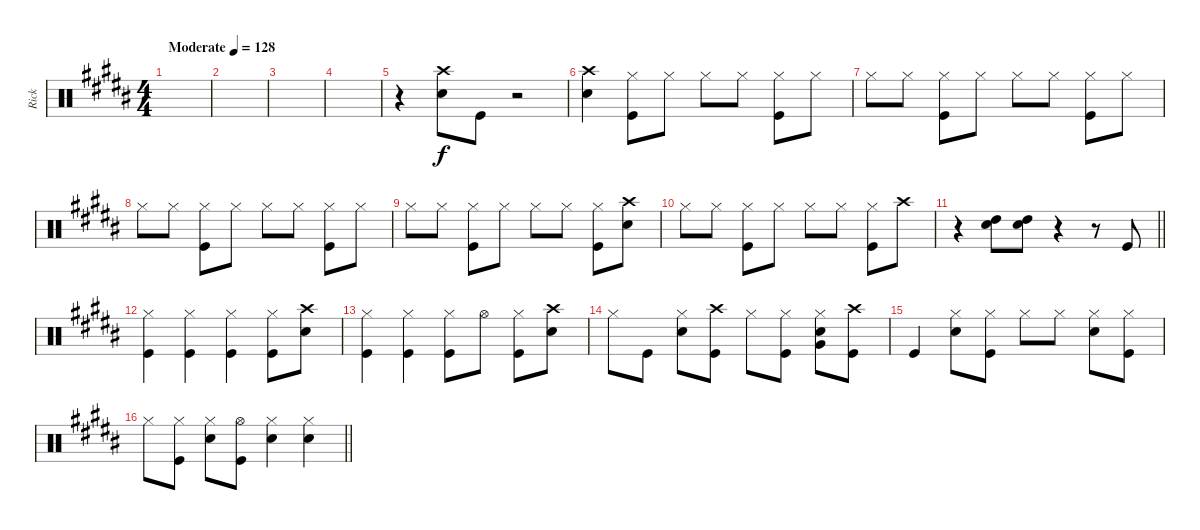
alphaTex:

\track ("Rick" "Rick") {instrument percussion}
\staff {score}
\articulation defaults
\ts (4 4)
\tempo (128 "Moderate")
\clef neutral
\ks b
|
|
|
|
r.4 ("Crash high (hit)" "Snare (hit) 2").8 "Kick (hit)".8 r.2 |
("Crash high (hit)" "Snare (hit) 2").4 ("Hi-Hat (closed)" "Kick (hit)").8 "Hi-Hat (closed)".8 "Hi-Hat (closed)".8 "Hi-Hat (closed)".8 ("Hi-Hat (closed)" "Kick (hit)").8 "Hi-Hat (closed)".8 |
"Hi-Hat (closed)".8 "Hi-Hat (closed)".8 ("Hi-Hat (closed)" "Kick (hit)").8 "Hi-Hat (closed)".8 "Hi-Hat (closed)".8 "Hi-Hat (closed)".8 ("Hi-Hat (closed)" "Kick (hit)").8 "Hi-Hat (closed)".8 |
"Hi-Hat (closed)".8 "Hi-Hat (closed)".8 ("Hi-Hat (closed)" "Kick (hit)").8 "Hi-Hat (closed)".8 "Hi-Hat (closed)".8 "Hi-Hat (closed)".8 ("Hi-Hat (closed)" "Kick (hit)").8 "Hi-Hat (closed)".8 |
"Hi-Hat (closed)".8 "Hi-Hat (closed)".8 ("Hi-Hat (closed)" "Kick (hit)").8 "Hi-Hat (closed)".8 "Hi-Hat (closed)".8 "Hi-Hat (closed)".8 ("Hi-Hat (closed)" "Kick (hit)").8 ("Crash high (hit)" "Snare (hit) 2").8 |
"Hi-Hat (closed)".8 "Hi-Hat (closed)".8 ("Hi-Hat (closed)" "Kick (hit)").8 "Hi-Hat (closed)".8 "Hi-Hat (closed)".8 "Hi-Hat (closed)".8 ("Hi-Hat (closed)" "Kick (hit)").8 "Crash high (hit)".8 |
\barLineRight lightlight
r.4 ("High Tom (hit)" "Snare (hit) 2").8 ("High Tom (hit)" "Snare (hit) 2").8 r.4 r.8 "Kick (hit)".8 |
("Hi-Hat (closed)" "Kick (hit)").4 ("Hi-Hat (closed)" "Kick (hit)").4 ("Hi-Hat (closed)" "Kick (hit)").4 ("Hi-Hat (closed)" "Kick (hit)").8 ("Crash high (hit)" "Snare (hit) 2").8 |
("Hi-Hat (closed)" "Kick (hit)").4 ("Hi-Hat (closed)" "Kick (hit)").4 ("Hi-Hat (closed)" "Kick (hit)").8 "Hi-Hat (open)".8 ("Hi-Hat (closed)" "Kick (hit)").8 ("Crash high (hit)" "Snare (hit) 2").8 |
"Hi-Hat (closed)".8 "Kick (hit)".8 ("Hi-Hat (closed)" "Snare (hit) 2").8 ("Crash high (hit)" "Kick (hit)").8 "Hi-Hat (closed)".8 ("Hi-Hat (closed)" "Kick (hit)").8 ("Hi-Hat (closed)" "Snare (hit) 2" "Very Low Tom (hit)").8 ("Crash high (hit)" "Kick (hit)").8 |
"Kick (hit)".4 ("Hi-Hat (closed)" "Snare (hit) 2").8 ("Hi-Hat (closed)" "Kick (hit)").8 "Hi-Hat (closed)".8 "Hi-Hat (closed)".8 ("Hi-Hat (closed)" "Snare (hit) 2").8 ("Hi-Hat (closed)" "Kick (hit)").8 |
\barLineRight lightlight "Hi-Hat (closed)".8
("Hi-Hat (closed)" "Kick (hit)").8 ("Hi-Hat (closed)" "Snare (hit) 2").8 ("Hi-Hat (open)" "Kick (hit)").8 ("Hi-Hat (closed)" "Snare (hit) 2").4 ("Hi-Hat (closed)" "Snare (hit) 2").4
